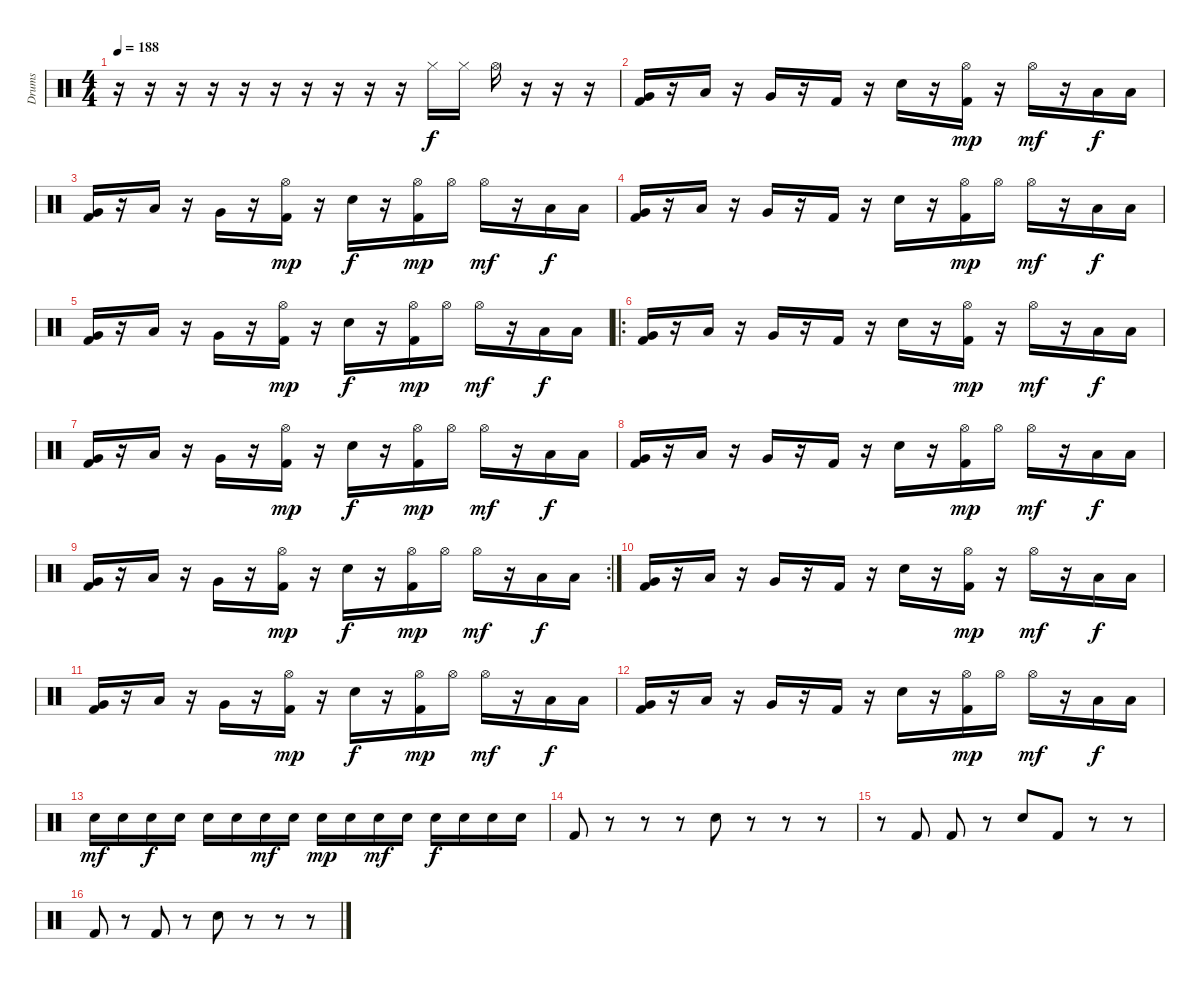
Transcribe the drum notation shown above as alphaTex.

\track ("Drums" "Drums") {instrument percussion}
\staff {score}
\articulation defaults
\ts (4 4)
\tempo 188
\clef neutral
\ks c
r.16{dy f} r.16 r.16 r.16 r.16 r.16 r.16 r.16 r.16 r.16 "Hi-Hat (closed)".16 "Hi-Hat (closed)".16 "Hi-Hat (open)".16 r.16 r.16 r.16 |
("Very Low Tom (hit)" "Kick (hit) 2").16 r.16 "Low Tom (hit)".16 r.16 "Very Low Tom (hit)".16 r.16 "Kick (hit) 2".16 r.16 "Snare (hit) 2".16 r.16 ("Hi-Hat (open)" "Kick (hit) 2").16{dy mp} r.16 "Hi-Hat (open)".16{dy mf} r.16 "Low Tom (hit)".16{dy f} "Low Tom (hit)".16 |
("Very Low Tom (hit)" "Kick (hit) 2").16 r.16 "Low Tom (hit)".16 r.16 "Very Low Tom (hit)".16 r.16 ("Hi-Hat (open)" "Kick (hit) 2").16{dy mp} r.16 "Snare (hit) 2".16{dy f} r.16 ("Hi-Hat (open)" "Kick (hit) 2").16{dy mp} "Hi-Hat (open)".16 "Hi-Hat (open)".16{dy mf} r.16 "Low Tom (hit)".16{dy f} "Low Tom (hit)".16 |
("Very Low Tom (hit)" "Kick (hit) 2").16 r.16 "Low Tom (hit)".16 r.16 "Very Low Tom (hit)".16 r.16 "Kick (hit) 2".16 r.16 "Snare (hit) 2".16 r.16 ("Hi-Hat (open)" "Kick (hit) 2").16{dy mp} "Hi-Hat (open)".16 "Hi-Hat (open)".16{dy mf} r.16 "Low Tom (hit)".16{dy f} "Low Tom (hit)".16 |
("Very Low Tom (hit)" "Kick (hit) 2").16 r.16 "Low Tom (hit)".16 r.16 "Very Low Tom (hit)".16 r.16 ("Hi-Hat (open)" "Kick (hit) 2").16{dy mp} r.16 "Snare (hit) 2".16{dy f} r.16 ("Hi-Hat (open)" "Kick (hit) 2").16{dy mp} "Hi-Hat (open)".16 "Hi-Hat (open)".16{dy mf} r.16 "Low Tom (hit)".16{dy f} "Low Tom (hit)".16 |
\ro
("Very Low Tom (hit)" "Kick (hit) 2").16 r.16 "Low Tom (hit)".16 r.16 "Very Low Tom (hit)".16 r.16 "Kick (hit) 2".16 r.16 "Snare (hit) 2".16 r.16 ("Hi-Hat (open)" "Kick (hit) 2").16{dy mp} r.16 "Hi-Hat (open)".16{dy mf} r.16 "Low Tom (hit)".16{dy f} "Low Tom (hit)".16 |
("Very Low Tom (hit)" "Kick (hit) 2").16 r.16 "Low Tom (hit)".16 r.16 "Very Low Tom (hit)".16 r.16 ("Hi-Hat (open)" "Kick (hit) 2").16{dy mp} r.16 "Snare (hit) 2".16{dy f} r.16 ("Hi-Hat (open)" "Kick (hit) 2").16{dy mp} "Hi-Hat (open)".16 "Hi-Hat (open)".16{dy mf} r.16 "Low Tom (hit)".16{dy f} "Low Tom (hit)".16 |
("Very Low Tom (hit)" "Kick (hit) 2").16 r.16 "Low Tom (hit)".16 r.16 "Very Low Tom (hit)".16 r.16 "Kick (hit) 2".16 r.16 "Snare (hit) 2".16 r.16 ("Hi-Hat (open)" "Kick (hit) 2").16{dy mp} "Hi-Hat (open)".16 "Hi-Hat (open)".16{dy mf} r.16 "Low Tom (hit)".16{dy f} "Low Tom (hit)".16 |
\rc 2
("Very Low Tom (hit)" "Kick (hit) 2").16 r.16 "Low Tom (hit)".16 r.16 "Very Low Tom (hit)".16 r.16 ("Hi-Hat (open)" "Kick (hit) 2").16{dy mp} r.16 "Snare (hit) 2".16{dy f} r.16 ("Hi-Hat (open)" "Kick (hit) 2").16{dy mp} "Hi-Hat (open)".16 "Hi-Hat (open)".16{dy mf} r.16 "Low Tom (hit)".16{dy f} "Low Tom (hit)".16 |
("Very Low Tom (hit)" "Kick (hit) 2").16 r.16 "Low Tom (hit)".16 r.16 "Very Low Tom (hit)".16 r.16 "Kick (hit) 2".16 r.16 "Snare (hit) 2".16 r.16 ("Hi-Hat (open)" "Kick (hit) 2").16{dy mp} r.16 "Hi-Hat (open)".16{dy mf} r.16 "Low Tom (hit)".16{dy f} "Low Tom (hit)".16 |
("Very Low Tom (hit)" "Kick (hit) 2").16 r.16 "Low Tom (hit)".16 r.16 "Very Low Tom (hit)".16 r.16 ("Hi-Hat (open)" "Kick (hit) 2").16{dy mp} r.16 "Snare (hit) 2".16{dy f} r.16 ("Hi-Hat (open)" "Kick (hit) 2").16{dy mp} "Hi-Hat (open)".16 "Hi-Hat (open)".16{dy mf} r.16 "Low Tom (hit)".16{dy f} "Low Tom (hit)".16 |
("Very Low Tom (hit)" "Kick (hit) 2").16 r.16 "Low Tom (hit)".16 r.16 "Very Low Tom (hit)".16 r.16 "Kick (hit) 2".16 r.16 "Snare (hit) 2".16 r.16 ("Hi-Hat (open)" "Kick (hit) 2").16{dy mp} "Hi-Hat (open)".16 "Hi-Hat (open)".16{dy mf} r.16 "Low Tom (hit)".16{dy f} "Low Tom (hit)".16 |
"Snare (hit) 2".16{dy mf} "Snare (hit) 2".16 "Snare (hit) 2".16{dy f} "Snare (hit) 2".16 "Snare (hit) 2".16 "Snare (hit) 2".16 "Snare (hit) 2".16{dy mf} "Snare (hit) 2".16 "Snare (hit) 2".16{dy mp} "Snare (hit) 2".16 "Snare (hit) 2".16{dy mf} "Snare (hit) 2".16 "Snare (hit) 2".16{dy f} "Snare (hit) 2".16 "Snare (hit) 2".16 "Snare (hit) 2".16 |
"Kick (hit) 2".8 r.8 r.8 r.8 "Snare (hit) 2".8 r.8 r.8 r.8 |
r.8 "Kick (hit) 2".8 "Kick (hit) 2".8 r.8 "Snare (hit) 2".8 "Kick (hit) 2".8 r.8 r.8 |
"Kick (hit) 2".8 r.8 "Kick (hit) 2".8 r.8 "Snare (hit) 2".8 r.8 r.8 r.8
